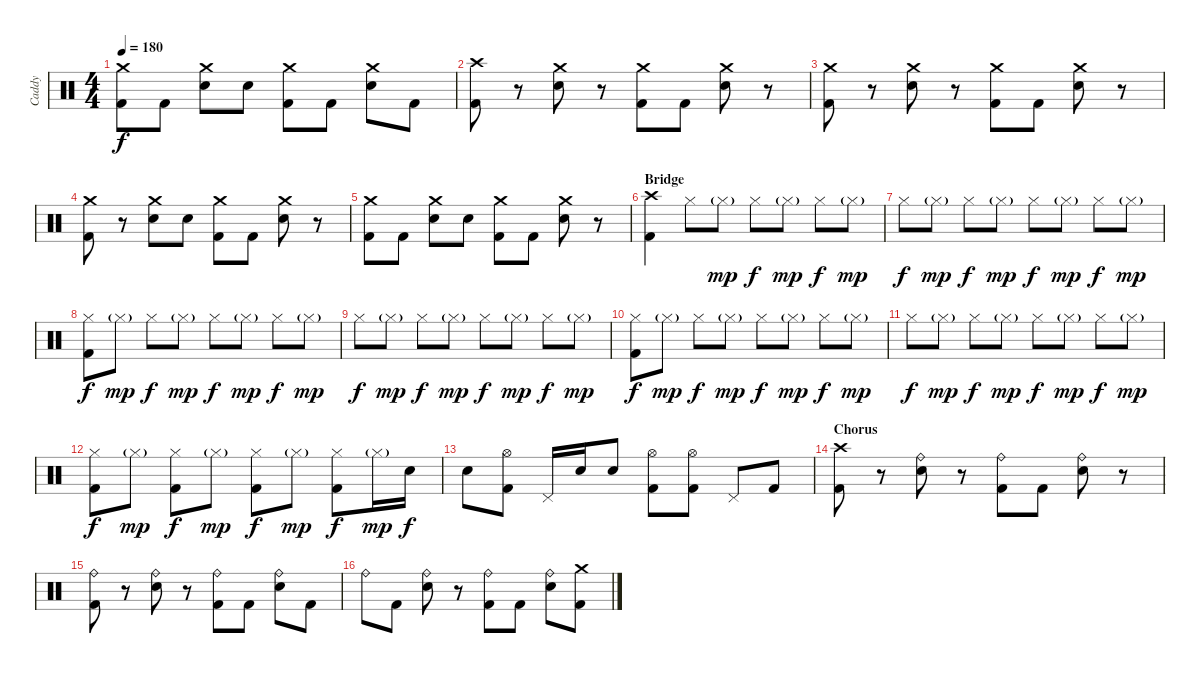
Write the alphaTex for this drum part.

\track ("Caddy" "Caddy") {instrument percussion}
\staff {score}
\articulation defaults
\ts (4 4)
\tempo 180
\clef neutral
\ks c
("Crash medium (hit)" "Kick (hit) 2").8{dy f} "Kick (hit) 2".8 ("Crash medium (hit)" "Electric Snare (hit)").8 "Electric Snare (hit)".8 ("Crash medium (hit)" "Kick (hit) 2").8 "Kick (hit) 2".8 ("Crash medium (hit)" "Electric Snare (hit)").8 "Kick (hit) 2".8 |
("Crash high (hit)" "Kick (hit) 2").8 r.8 ("Crash medium (hit)" "Electric Snare (hit)").8 r.8 ("Crash medium (hit)" "Kick (hit) 2").8 "Kick (hit) 2".8 ("Crash medium (hit)" "Electric Snare (hit)").8 r.8 |
("Crash medium (hit)" "Kick (hit) 2").8 r.8 ("Crash medium (hit)" "Electric Snare (hit)").8 r.8 ("Crash medium (hit)" "Kick (hit) 2").8 "Kick (hit) 2".8 ("Crash medium (hit)" "Electric Snare (hit)").8 r.8 |
("Crash medium (hit)" "Kick (hit) 2").8 r.8 ("Crash medium (hit)" "Electric Snare (hit)").8 "Electric Snare (hit)".8 ("Crash medium (hit)" "Kick (hit) 2").8 "Kick (hit) 2".8 ("Crash medium (hit)" "Electric Snare (hit)").8 r.8 |
("Crash medium (hit)" "Kick (hit) 2").8 "Kick (hit) 2".8 ("Crash medium (hit)" "Electric Snare (hit)").8 "Electric Snare (hit)".8 ("Crash medium (hit)" "Kick (hit) 2").8 "Kick (hit) 2".8 ("Crash medium (hit)" "Electric Snare (hit)").8 r.8 |
\section ("" "Bridge")
("Crash high (hit)" "Kick (hit) 2").4 "Hi-Hat (closed)".8 "Hi-Hat (closed)"{g}.8{dy mp} "Hi-Hat (closed)".8{dy f} "Hi-Hat (closed)"{g}.8{dy mp} "Hi-Hat (closed)".8{dy f} "Hi-Hat (closed)"{g}.8{dy mp} |
"Hi-Hat (closed)".8{dy f} "Hi-Hat (closed)"{g}.8{dy mp} "Hi-Hat (closed)".8{dy f} "Hi-Hat (closed)"{g}.8{dy mp} "Hi-Hat (closed)".8{dy f} "Hi-Hat (closed)"{g}.8{dy mp} "Hi-Hat (closed)".8{dy f} "Hi-Hat (closed)"{g}.8{dy mp} |
("Hi-Hat (closed)" "Kick (hit) 2").8{dy f} "Hi-Hat (closed)"{g}.8{dy mp} "Hi-Hat (closed)".8{dy f} "Hi-Hat (closed)"{g}.8{dy mp} "Hi-Hat (closed)".8{dy f} "Hi-Hat (closed)"{g}.8{dy mp} "Hi-Hat (closed)".8{dy f} "Hi-Hat (closed)"{g}.8{dy mp} |
"Hi-Hat (closed)".8{dy f} "Hi-Hat (closed)"{g}.8{dy mp} "Hi-Hat (closed)".8{dy f} "Hi-Hat (closed)"{g}.8{dy mp} "Hi-Hat (closed)".8{dy f} "Hi-Hat (closed)"{g}.8{dy mp} "Hi-Hat (closed)".8{dy f} "Hi-Hat (closed)"{g}.8{dy mp} |
("Hi-Hat (closed)" "Kick (hit) 2").8{dy f} "Hi-Hat (closed)"{g}.8{dy mp} "Hi-Hat (closed)".8{dy f} "Hi-Hat (closed)"{g}.8{dy mp} "Hi-Hat (closed)".8{dy f} "Hi-Hat (closed)"{g}.8{dy mp} "Hi-Hat (closed)".8{dy f} "Hi-Hat (closed)"{g}.8{dy mp} |
"Hi-Hat (closed)".8{dy f} "Hi-Hat (closed)"{g}.8{dy mp} "Hi-Hat (closed)".8{dy f} "Hi-Hat (closed)"{g}.8{dy mp} "Hi-Hat (closed)".8{dy f} "Hi-Hat (closed)"{g}.8{dy mp} "Hi-Hat (closed)".8{dy f} "Hi-Hat (closed)"{g}.8{dy mp} |
("Hi-Hat (closed)" "Kick (hit) 2").8{dy f} "Hi-Hat (closed)"{g}.8{dy mp} ("Hi-Hat (closed)" "Kick (hit) 2").8{dy f} "Hi-Hat (closed)"{g}.8{dy mp} ("Hi-Hat (closed)" "Kick (hit) 2").8{dy f} "Hi-Hat (closed)"{g}.8{dy mp} ("Hi-Hat (closed)" "Kick (hit) 2").8{dy f} "Hi-Hat (closed)"{g}.16{dy mp} "Electric Snare (hit)".16{dy f} |
"Electric Snare (hit)".8 ("Hi-Hat (open)" "Kick (hit) 2").8 "Pedal Hi-Hat (hit)".16 "Electric Snare (hit)".16 "Electric Snare (hit)".8 ("Hi-Hat (open)" "Kick (hit) 2").8 ("Hi-Hat (open)" "Kick (hit) 2").8 "Pedal Hi-Hat (hit)".8 "Kick (hit) 2".8 |
\section ("" "Chorus")
("Crash high (hit)" "Kick (hit) 2").8 r.8 ("Ride (bell)" "Electric Snare (hit)").8 r.8 ("Ride (bell)" "Kick (hit) 2").8 "Kick (hit) 2".8 ("Ride (bell)" "Electric Snare (hit)").8 r.8 |
("Ride (bell)" "Kick (hit) 2").8 r.8 ("Ride (bell)" "Electric Snare (hit)").8 r.8 ("Ride (bell)" "Kick (hit) 2").8 "Kick (hit) 2".8 ("Ride (bell)" "Electric Snare (hit)").8 "Kick (hit) 2".8 |
"Ride (bell)".8 "Kick (hit) 2".8 ("Ride (bell)" "Electric Snare (hit)").8 r.8 ("Ride (bell)" "Kick (hit) 2").8 "Kick (hit) 2".8 ("Ride (bell)" "Electric Snare (hit)").8 ("Crash medium (hit)" "Kick (hit) 2").8
